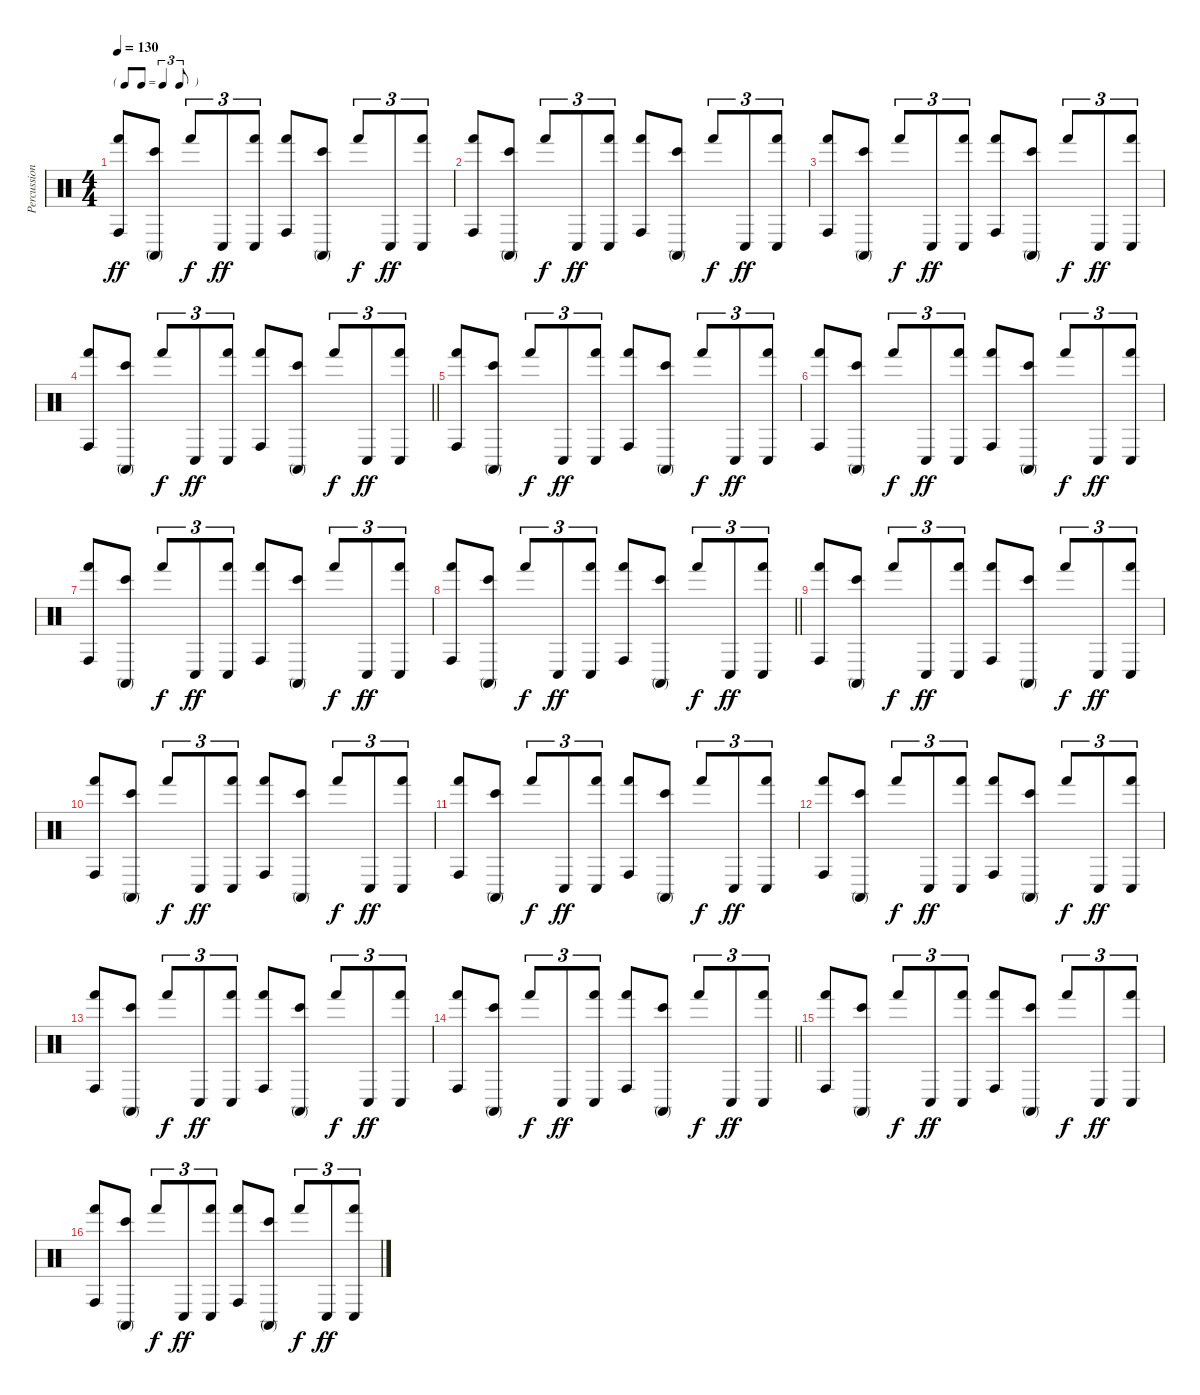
\track ("Percussion" "Percussion") {instrument percussion}
\staff {score}
\articulation defaults
\ts (4 4)
\tf triplet8th
\tempo 130
\clef neutral
\ks c
("Hand (hit)" "Conga high (hit)").8{dy ff} ("Bongo High (hit)" "Conga high (mute)").8 "Hand (hit)".8{tu (3 2) dy f} "Conga low (hit)".8{tu (3 2) dy ff} ("Hand (hit)" "Conga low (hit)").8{tu (3 2)} ("Hand (hit)" "Conga high (hit)").8 ("Bongo High (hit)" "Conga high (mute)").8 "Hand (hit)".8{tu (3 2) dy f} "Conga low (hit)".8{tu (3 2) dy ff} ("Hand (hit)" "Conga low (hit)").8{tu (3 2)} |
("Hand (hit)" "Conga high (hit)").8 ("Bongo High (hit)" "Conga high (mute)").8 "Hand (hit)".8{tu (3 2) dy f} "Conga low (hit)".8{tu (3 2) dy ff} ("Hand (hit)" "Conga low (hit)").8{tu (3 2)} ("Hand (hit)" "Conga high (hit)").8 ("Bongo High (hit)" "Conga high (mute)").8 "Hand (hit)".8{tu (3 2) dy f} "Conga low (hit)".8{tu (3 2) dy ff} ("Hand (hit)" "Conga low (hit)").8{tu (3 2)} |
("Hand (hit)" "Conga high (hit)").8 ("Bongo High (hit)" "Conga high (mute)").8 "Hand (hit)".8{tu (3 2) dy f} "Conga low (hit)".8{tu (3 2) dy ff} ("Hand (hit)" "Conga low (hit)").8{tu (3 2)} ("Hand (hit)" "Conga high (hit)").8 ("Bongo High (hit)" "Conga high (mute)").8 "Hand (hit)".8{tu (3 2) dy f} "Conga low (hit)".8{tu (3 2) dy ff} ("Hand (hit)" "Conga low (hit)").8{tu (3 2)} |
\barLineRight lightlight
("Hand (hit)" "Conga high (hit)").8 ("Bongo High (hit)" "Conga high (mute)").8 "Hand (hit)".8{tu (3 2) dy f} "Conga low (hit)".8{tu (3 2) dy ff} ("Hand (hit)" "Conga low (hit)").8{tu (3 2)} ("Hand (hit)" "Conga high (hit)").8 ("Bongo High (hit)" "Conga high (mute)").8 "Hand (hit)".8{tu (3 2) dy f} "Conga low (hit)".8{tu (3 2) dy ff} ("Hand (hit)" "Conga low (hit)").8{tu (3 2)} |
("Hand (hit)" "Conga high (hit)").8 ("Bongo High (hit)" "Conga high (mute)").8 "Hand (hit)".8{tu (3 2) dy f} "Conga low (hit)".8{tu (3 2) dy ff} ("Hand (hit)" "Conga low (hit)").8{tu (3 2)} ("Hand (hit)" "Conga high (hit)").8 ("Bongo High (hit)" "Conga high (mute)").8 "Hand (hit)".8{tu (3 2) dy f} "Conga low (hit)".8{tu (3 2) dy ff} ("Hand (hit)" "Conga low (hit)").8{tu (3 2)} |
("Hand (hit)" "Conga high (hit)").8 ("Bongo High (hit)" "Conga high (mute)").8 "Hand (hit)".8{tu (3 2) dy f} "Conga low (hit)".8{tu (3 2) dy ff} ("Hand (hit)" "Conga low (hit)").8{tu (3 2)} ("Hand (hit)" "Conga high (hit)").8 ("Bongo High (hit)" "Conga high (mute)").8 "Hand (hit)".8{tu (3 2) dy f} "Conga low (hit)".8{tu (3 2) dy ff} ("Hand (hit)" "Conga low (hit)").8{tu (3 2)} |
("Hand (hit)" "Conga high (hit)").8 ("Bongo High (hit)" "Conga high (mute)").8 "Hand (hit)".8{tu (3 2) dy f} "Conga low (hit)".8{tu (3 2) dy ff} ("Hand (hit)" "Conga low (hit)").8{tu (3 2)} ("Hand (hit)" "Conga high (hit)").8 ("Bongo High (hit)" "Conga high (mute)").8 "Hand (hit)".8{tu (3 2) dy f} "Conga low (hit)".8{tu (3 2) dy ff} ("Hand (hit)" "Conga low (hit)").8{tu (3 2)} |
\barLineRight lightlight
("Hand (hit)" "Conga high (hit)").8 ("Bongo High (hit)" "Conga high (mute)").8 "Hand (hit)".8{tu (3 2) dy f} "Conga low (hit)".8{tu (3 2) dy ff} ("Hand (hit)" "Conga low (hit)").8{tu (3 2)} ("Hand (hit)" "Conga high (hit)").8 ("Bongo High (hit)" "Conga high (mute)").8 "Hand (hit)".8{tu (3 2) dy f} "Conga low (hit)".8{tu (3 2) dy ff} ("Hand (hit)" "Conga low (hit)").8{tu (3 2)} |
("Hand (hit)" "Conga high (hit)").8 ("Bongo High (hit)" "Conga high (mute)").8 "Hand (hit)".8{tu (3 2) dy f} "Conga low (hit)".8{tu (3 2) dy ff} ("Hand (hit)" "Conga low (hit)").8{tu (3 2)} ("Hand (hit)" "Conga high (hit)").8 ("Bongo High (hit)" "Conga high (mute)").8 "Hand (hit)".8{tu (3 2) dy f} "Conga low (hit)".8{tu (3 2) dy ff} ("Hand (hit)" "Conga low (hit)").8{tu (3 2)} |
("Hand (hit)" "Conga high (hit)").8 ("Bongo High (hit)" "Conga high (mute)").8 "Hand (hit)".8{tu (3 2) dy f} "Conga low (hit)".8{tu (3 2) dy ff} ("Hand (hit)" "Conga low (hit)").8{tu (3 2)} ("Hand (hit)" "Conga high (hit)").8 ("Bongo High (hit)" "Conga high (mute)").8 "Hand (hit)".8{tu (3 2) dy f} "Conga low (hit)".8{tu (3 2) dy ff} ("Hand (hit)" "Conga low (hit)").8{tu (3 2)} |
("Hand (hit)" "Conga high (hit)").8 ("Bongo High (hit)" "Conga high (mute)").8 "Hand (hit)".8{tu (3 2) dy f} "Conga low (hit)".8{tu (3 2) dy ff} ("Hand (hit)" "Conga low (hit)").8{tu (3 2)} ("Hand (hit)" "Conga high (hit)").8 ("Bongo High (hit)" "Conga high (mute)").8 "Hand (hit)".8{tu (3 2) dy f} "Conga low (hit)".8{tu (3 2) dy ff} ("Hand (hit)" "Conga low (hit)").8{tu (3 2)} |
("Hand (hit)" "Conga high (hit)").8 ("Bongo High (hit)" "Conga high (mute)").8 "Hand (hit)".8{tu (3 2) dy f} "Conga low (hit)".8{tu (3 2) dy ff} ("Hand (hit)" "Conga low (hit)").8{tu (3 2)} ("Hand (hit)" "Conga high (hit)").8 ("Bongo High (hit)" "Conga high (mute)").8 "Hand (hit)".8{tu (3 2) dy f} "Conga low (hit)".8{tu (3 2) dy ff} ("Hand (hit)" "Conga low (hit)").8{tu (3 2)} |
("Hand (hit)" "Conga high (hit)").8 ("Bongo High (hit)" "Conga high (mute)").8 "Hand (hit)".8{tu (3 2) dy f} "Conga low (hit)".8{tu (3 2) dy ff} ("Hand (hit)" "Conga low (hit)").8{tu (3 2)} ("Hand (hit)" "Conga high (hit)").8 ("Bongo High (hit)" "Conga high (mute)").8 "Hand (hit)".8{tu (3 2) dy f} "Conga low (hit)".8{tu (3 2) dy ff} ("Hand (hit)" "Conga low (hit)").8{tu (3 2)} |
\barLineRight lightlight
("Hand (hit)" "Conga high (hit)").8 ("Bongo High (hit)" "Conga high (mute)").8 "Hand (hit)".8{tu (3 2) dy f} "Conga low (hit)".8{tu (3 2) dy ff} ("Hand (hit)" "Conga low (hit)").8{tu (3 2)} ("Hand (hit)" "Conga high (hit)").8 ("Bongo High (hit)" "Conga high (mute)").8 "Hand (hit)".8{tu (3 2) dy f} "Conga low (hit)".8{tu (3 2) dy ff} ("Hand (hit)" "Conga low (hit)").8{tu (3 2)} |
("Hand (hit)" "Conga high (hit)").8 ("Bongo High (hit)" "Conga high (mute)").8 "Hand (hit)".8{tu (3 2) dy f} "Conga low (hit)".8{tu (3 2) dy ff} ("Hand (hit)" "Conga low (hit)").8{tu (3 2)} ("Hand (hit)" "Conga high (hit)").8 ("Bongo High (hit)" "Conga high (mute)").8 "Hand (hit)".8{tu (3 2) dy f} "Conga low (hit)".8{tu (3 2) dy ff} ("Hand (hit)" "Conga low (hit)").8{tu (3 2)} |
("Hand (hit)" "Conga high (hit)").8 ("Bongo High (hit)" "Conga high (mute)").8 "Hand (hit)".8{tu (3 2) dy f} "Conga low (hit)".8{tu (3 2) dy ff} ("Hand (hit)" "Conga low (hit)").8{tu (3 2)} ("Hand (hit)" "Conga high (hit)").8 ("Bongo High (hit)" "Conga high (mute)").8 "Hand (hit)".8{tu (3 2) dy f} "Conga low (hit)".8{tu (3 2) dy ff} ("Hand (hit)" "Conga low (hit)").8{tu (3 2)}
